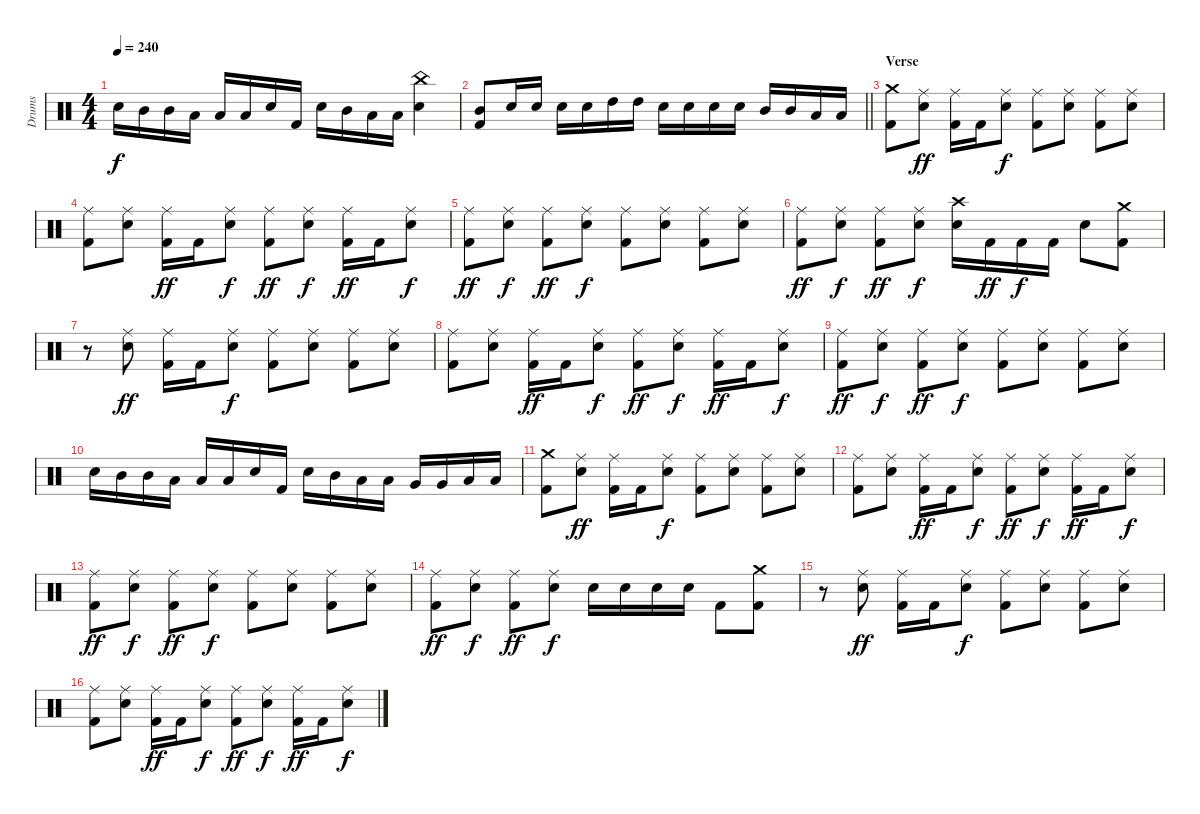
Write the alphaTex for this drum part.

\track ("Drums" "Drums") {instrument percussion}
\staff {score}
\articulation defaults
\ts (4 4)
\tempo 240
\clef neutral
\ks c "Electric Snare (hit)".16{dy f} "Mid Tom (hit)".16 "Mid Tom (hit)".16 "Low Tom (hit)".16 "Low Tom (hit)".16 "Low Tom (hit)".16 "Electric Snare (hit)".16 "Kick (hit) 2".16 "Electric Snare (hit)".16 "Mid Tom (hit)".16 "Low Tom (hit)".16 "Low Tom (hit)".16
("China (hit)" "Electric Snare (hit)").4 |
\barLineRight lightlight
("Mid Tom (hit)" "Kick (hit) 2").8 "Electric Snare (hit)".16 "Electric Snare (hit)".16 "Electric Snare (hit)".16 "Electric Snare (hit)".16 "High Tom (hit)".16 "High Tom (hit)".16 "Electric Snare (hit)".16 "Electric Snare (hit)".16 "Electric Snare (hit)".16 "Electric Snare (hit)".16 "Mid Tom (hit)".16 "Mid Tom (hit)".16 "Low Tom (hit)".16 "Low Tom (hit)".16 |
\section ("" "Verse")
("Crash medium (hit)" "Kick (hit) 2").8 ("Ride (middle)" "Electric Snare (hit)").8{dy ff} ("Ride (middle)" "Kick (hit) 2").16 "Kick (hit) 2".16 ("Ride (middle)" "Electric Snare (hit)").8{dy f} ("Ride (middle)" "Kick (hit) 2").8 ("Ride (middle)" "Electric Snare (hit)").8 ("Ride (middle)" "Kick (hit) 2").8 ("Ride (middle)" "Electric Snare (hit)").8 |
("Ride (middle)" "Kick (hit) 2").8 ("Ride (middle)" "Electric Snare (hit)").8 ("Ride (middle)" "Kick (hit) 2").16{dy ff} "Kick (hit) 2".16 ("Ride (middle)" "Electric Snare (hit)").8{dy f} ("Ride (middle)" "Kick (hit) 2").8{dy ff} ("Ride (middle)" "Electric Snare (hit)").8{dy f} ("Ride (middle)" "Kick (hit) 2").16{dy ff} "Kick (hit) 2".16 ("Ride (middle)" "Electric Snare (hit)").8{dy f} |
("Ride (middle)" "Kick (hit) 2").8{dy ff} ("Ride (middle)" "Electric Snare (hit)").8{dy f} ("Ride (middle)" "Kick (hit) 2").8{dy ff} ("Ride (middle)" "Electric Snare (hit)").8{dy f} ("Ride (middle)" "Kick (hit) 2").8 ("Ride (middle)" "Electric Snare (hit)").8 ("Ride (middle)" "Kick (hit) 2").8 ("Ride (middle)" "Electric Snare (hit)").8 |
("Ride (middle)" "Kick (hit) 2").8{dy ff} ("Ride (middle)" "Electric Snare (hit)").8{dy f} ("Ride (middle)" "Kick (hit) 2").8{dy ff} ("Ride (middle)" "Electric Snare (hit)").8{dy f} ("Crash high (hit)" "Electric Snare (hit)").16 "Kick (hit) 2".16{dy ff} "Kick (hit) 2".16{dy f} "Kick (hit) 2".16 "Electric Snare (hit)".8 ("Crash medium (hit)" "Kick (hit) 2").8 |
r.8 ("Ride (middle)" "Electric Snare (hit)").8{dy ff} ("Ride (middle)" "Kick (hit) 2").16 "Kick (hit) 2".16 ("Ride (middle)" "Electric Snare (hit)").8{dy f} ("Ride (middle)" "Kick (hit) 2").8 ("Ride (middle)" "Electric Snare (hit)").8 ("Ride (middle)" "Kick (hit) 2").8 ("Ride (middle)" "Electric Snare (hit)").8 |
("Ride (middle)" "Kick (hit) 2").8 ("Ride (middle)" "Electric Snare (hit)").8 ("Ride (middle)" "Kick (hit) 2").16{dy ff} "Kick (hit) 2".16 ("Ride (middle)" "Electric Snare (hit)").8{dy f} ("Ride (middle)" "Kick (hit) 2").8{dy ff} ("Ride (middle)" "Electric Snare (hit)").8{dy f} ("Ride (middle)" "Kick (hit) 2").16{dy ff} "Kick (hit) 2".16 ("Ride (middle)" "Electric Snare (hit)").8{dy f} |
("Ride (middle)" "Kick (hit) 2").8{dy ff} ("Ride (middle)" "Electric Snare (hit)").8{dy f} ("Ride (middle)" "Kick (hit) 2").8{dy ff} ("Ride (middle)" "Electric Snare (hit)").8{dy f} ("Ride (middle)" "Kick (hit) 2").8 ("Ride (middle)" "Electric Snare (hit)").8 ("Ride (middle)" "Kick (hit) 2").8 ("Ride (middle)" "Electric Snare (hit)").8 |
"Electric Snare (hit)".16 "Mid Tom (hit)".16 "Mid Tom (hit)".16 "Low Tom (hit)".16 "Low Tom (hit)".16 "Low Tom (hit)".16 "Electric Snare (hit)".16 "Kick (hit) 2".16 "Electric Snare (hit)".16 "Mid Tom (hit)".16 "Low Tom (hit)".16 "Low Tom (hit)".16 "Very Low Tom (hit)".16 "Very Low Tom (hit)".16 "Low Tom (hit)".16 "Low Tom (hit)".16 |
("Crash medium (hit)" "Kick (hit) 2").8 ("Ride (middle)" "Electric Snare (hit)").8{dy ff} ("Ride (middle)" "Kick (hit) 2").16 "Kick (hit) 2".16 ("Ride (middle)" "Electric Snare (hit)").8{dy f} ("Ride (middle)" "Kick (hit) 2").8 ("Ride (middle)" "Electric Snare (hit)").8 ("Ride (middle)" "Kick (hit) 2").8 ("Ride (middle)" "Electric Snare (hit)").8 |
("Ride (middle)" "Kick (hit) 2").8 ("Ride (middle)" "Electric Snare (hit)").8 ("Ride (middle)" "Kick (hit) 2").16{dy ff} "Kick (hit) 2".16 ("Ride (middle)" "Electric Snare (hit)").8{dy f} ("Ride (middle)" "Kick (hit) 2").8{dy ff} ("Ride (middle)" "Electric Snare (hit)").8{dy f} ("Ride (middle)" "Kick (hit) 2").16{dy ff} "Kick (hit) 2".16 ("Ride (middle)" "Electric Snare (hit)").8{dy f} |
("Ride (middle)" "Kick (hit) 2").8{dy ff} ("Ride (middle)" "Electric Snare (hit)").8{dy f} ("Ride (middle)" "Kick (hit) 2").8{dy ff} ("Ride (middle)" "Electric Snare (hit)").8{dy f} ("Ride (middle)" "Kick (hit) 2").8 ("Ride (middle)" "Electric Snare (hit)").8 ("Ride (middle)" "Kick (hit) 2").8 ("Ride (middle)" "Electric Snare (hit)").8 |
("Ride (middle)" "Kick (hit) 2").8{dy ff} ("Ride (middle)" "Electric Snare (hit)").8{dy f} ("Ride (middle)" "Kick (hit) 2").8{dy ff} ("Ride (middle)" "Electric Snare (hit)").8{dy f} "Electric Snare (hit)".16 "Electric Snare (hit)".16 "Electric Snare (hit)".16 "Electric Snare (hit)".16 "Kick (hit) 2".8 ("Crash medium (hit)" "Kick (hit) 2").8 |
r.8 ("Ride (middle)" "Electric Snare (hit)").8{dy ff} ("Ride (middle)" "Kick (hit) 2").16 "Kick (hit) 2".16 ("Ride (middle)" "Electric Snare (hit)").8{dy f} ("Ride (middle)" "Kick (hit) 2").8 ("Ride (middle)" "Electric Snare (hit)").8 ("Ride (middle)" "Kick (hit) 2").8 ("Ride (middle)" "Electric Snare (hit)").8 |
("Ride (middle)" "Kick (hit) 2").8 ("Ride (middle)" "Electric Snare (hit)").8 ("Ride (middle)" "Kick (hit) 2").16{dy ff} "Kick (hit) 2".16 ("Ride (middle)" "Electric Snare (hit)").8{dy f} ("Ride (middle)" "Kick (hit) 2").8{dy ff} ("Ride (middle)" "Electric Snare (hit)").8{dy f} ("Ride (middle)" "Kick (hit) 2").16{dy ff} "Kick (hit) 2".16 ("Ride (middle)" "Electric Snare (hit)").8{dy f}
